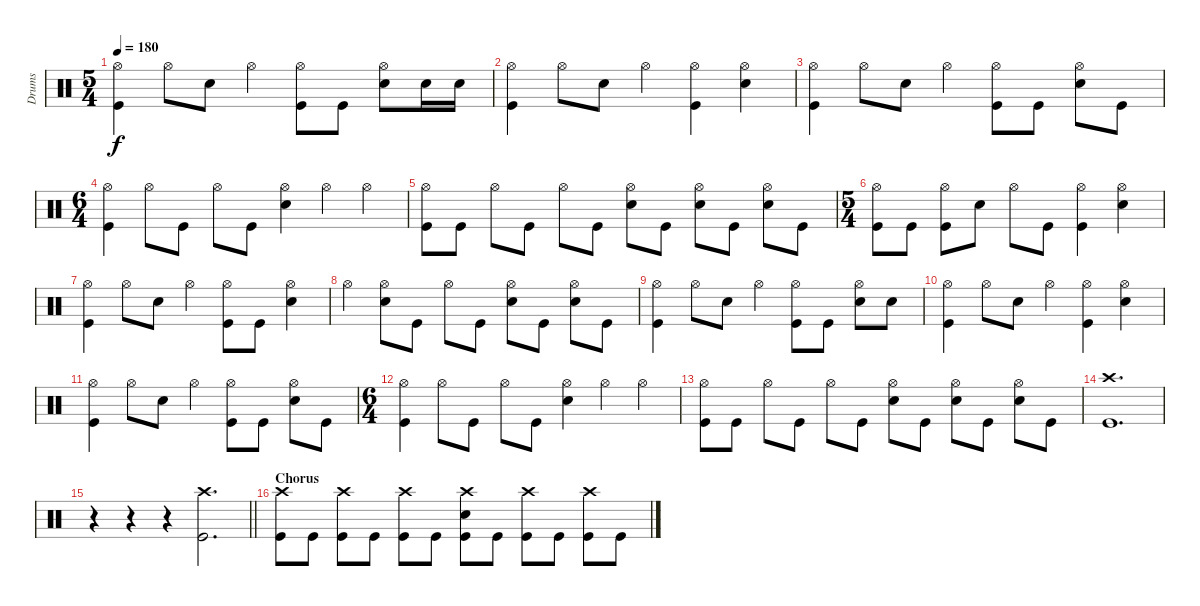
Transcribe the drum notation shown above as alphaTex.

\track ("Drums" "Drums") {instrument percussion}
\staff {score}
\articulation defaults
\ts (5 4)
\tempo 180
\clef neutral
\ks c
("Hi-Hat (open)" "Kick (hit)").4{dy f} "Hi-Hat (open)".8 "Snare (hit) 2".8 "Hi-Hat (open)".4 ("Hi-Hat (open)" "Kick (hit)").8 "Kick (hit)".8 ("Hi-Hat (open)" "Snare (hit) 2").8 "Snare (hit) 2".16 "Snare (hit) 2".16 |
("Hi-Hat (open)" "Kick (hit)").4 "Hi-Hat (open)".8 "Snare (hit) 2".8 "Hi-Hat (open)".4 ("Hi-Hat (open)" "Kick (hit)").4 ("Hi-Hat (open)" "Snare (hit) 2").4 |
("Hi-Hat (open)" "Kick (hit)").4 "Hi-Hat (open)".8 "Snare (hit) 2".8 "Hi-Hat (open)".4 ("Hi-Hat (open)" "Kick (hit)").8 "Kick (hit)".8 ("Hi-Hat (open)" "Snare (hit) 2").8 "Kick (hit)".8 |
\ts (6 4)
("Hi-Hat (open)" "Kick (hit)").4 "Hi-Hat (open)".8 "Kick (hit)".8 "Hi-Hat (open)".8 "Kick (hit)".8 ("Hi-Hat (open)" "Snare (hit) 2").4 "Hi-Hat (open)".4 "Hi-Hat (open)".4 |
("Hi-Hat (open)" "Kick (hit)").8 "Kick (hit)".8 "Hi-Hat (open)".8 "Kick (hit)".8 "Hi-Hat (open)".8 "Kick (hit)".8 ("Hi-Hat (open)" "Snare (hit) 2").8 "Kick (hit)".8 ("Hi-Hat (open)" "Snare (hit) 2").8 "Kick (hit)".8 ("Hi-Hat (open)" "Snare (hit) 2").8 "Kick (hit)".8 |
\ts (5 4)
("Hi-Hat (open)" "Kick (hit)").8 "Kick (hit)".8 ("Hi-Hat (open)" "Kick (hit)").8 "Snare (hit) 2".8 "Hi-Hat (open)".8 "Kick (hit)".8 ("Hi-Hat (open)" "Kick (hit)").4 ("Hi-Hat (open)" "Snare (hit) 2").4 |
("Hi-Hat (open)" "Kick (hit)").4 "Hi-Hat (open)".8 "Snare (hit) 2".8 "Hi-Hat (open)".4 ("Hi-Hat (open)" "Kick (hit)").8 "Kick (hit)".8 ("Hi-Hat (open)" "Snare (hit) 2").4 |
"Hi-Hat (open)".4 ("Hi-Hat (open)" "Snare (hit) 2").8 "Kick (hit)".8 "Hi-Hat (open)".8 "Kick (hit)".8 ("Hi-Hat (open)" "Snare (hit) 2").8 "Kick (hit)".8 ("Hi-Hat (open)" "Snare (hit) 2").8 "Kick (hit)".8 |
("Hi-Hat (open)" "Kick (hit)").4 "Hi-Hat (open)".8 "Snare (hit) 2".8 "Hi-Hat (open)".4 ("Hi-Hat (open)" "Kick (hit)").8 "Kick (hit)".8 ("Hi-Hat (open)" "Snare (hit) 2").8 "Snare (hit) 2".8 |
("Hi-Hat (open)" "Kick (hit)").4 "Hi-Hat (open)".8 "Snare (hit) 2".8 "Hi-Hat (open)".4 ("Hi-Hat (open)" "Kick (hit)").4 ("Hi-Hat (open)" "Snare (hit) 2").4 |
("Hi-Hat (open)" "Kick (hit)").4 "Hi-Hat (open)".8 "Snare (hit) 2".8 "Hi-Hat (open)".4 ("Hi-Hat (open)" "Kick (hit)").8 "Kick (hit)".8 ("Hi-Hat (open)" "Snare (hit) 2").8 "Kick (hit)".8 |
\ts (6 4)
("Hi-Hat (open)" "Kick (hit)").4 "Hi-Hat (open)".8 "Kick (hit)".8 "Hi-Hat (open)".8 "Kick (hit)".8 ("Hi-Hat (open)" "Snare (hit) 2").4 "Hi-Hat (open)".4 "Hi-Hat (open)".4 |
("Hi-Hat (open)" "Kick (hit)").8 "Kick (hit)".8 "Hi-Hat (open)".8 "Kick (hit)".8 "Hi-Hat (open)".8 "Kick (hit)".8 ("Hi-Hat (open)" "Snare (hit) 2").8 "Kick (hit)".8 ("Hi-Hat (open)" "Snare (hit) 2").8 "Kick (hit)".8 ("Hi-Hat (open)" "Snare (hit) 2").8 "Kick (hit)".8 |
("Crash high (hit)" "Kick (hit)").1{d} |
\barLineRight lightlight
r.4 r.4 r.4 ("Crash high (hit)" "Kick (hit)").2{d} |
\section ("" "Chorus")
("Crash high (hit)" "Kick (hit)").8 "Kick (hit)".8 ("Crash high (hit)" "Kick (hit)").8 "Kick (hit)".8 ("Crash high (hit)" "Kick (hit)").8 "Kick (hit)".8 ("Crash high (hit)" "Snare (hit) 2" "Kick (hit)").8 "Kick (hit)".8 ("Crash high (hit)" "Kick (hit)").8 "Kick (hit)".8 ("Crash high (hit)" "Kick (hit)").8 "Kick (hit)".8
